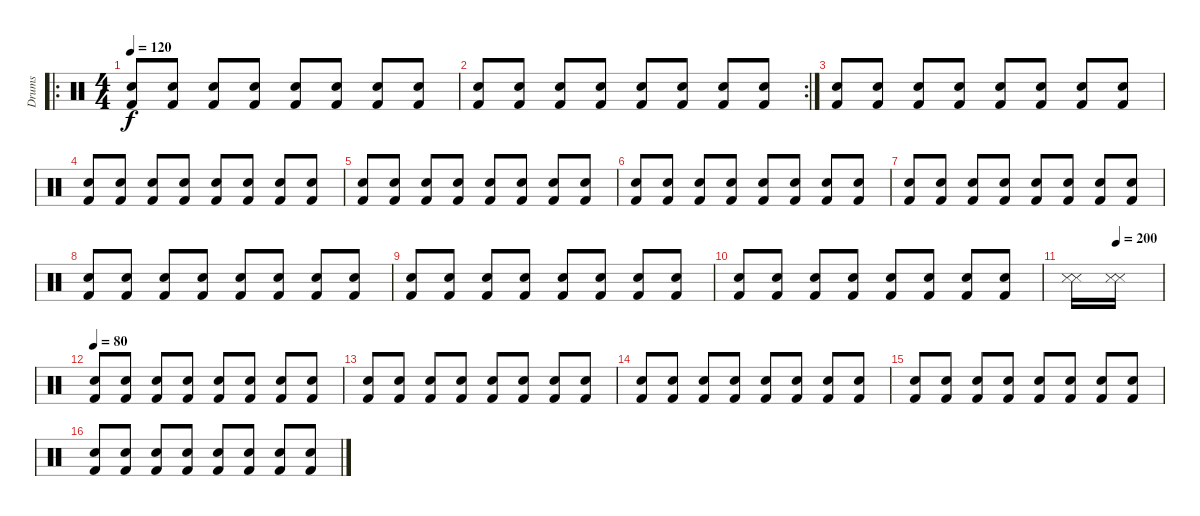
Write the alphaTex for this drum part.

\track ("Drums" "Drums") {instrument percussion}
\staff {score}
\articulation defaults
\ro
\ts (4 4)
\tempo 120
\tempo 80
\tempo 120
\clef neutral
\ks c
("Kick (hit) 2" "Snare (hit) 2").8{dy f} ("Kick (hit) 2" "Snare (hit) 2").8 ("Kick (hit) 2" "Snare (hit) 2").8 ("Kick (hit) 2" "Snare (hit) 2").8 ("Kick (hit) 2" "Snare (hit) 2").8 ("Kick (hit) 2" "Snare (hit) 2").8 ("Kick (hit) 2" "Snare (hit) 2").8 ("Kick (hit) 2" "Snare (hit) 2").8 |
\rc 2
("Kick (hit) 2" "Snare (hit) 2").8 ("Kick (hit) 2" "Snare (hit) 2").8 ("Kick (hit) 2" "Snare (hit) 2").8 ("Kick (hit) 2" "Snare (hit) 2").8 ("Kick (hit) 2" "Snare (hit) 2").8 ("Kick (hit) 2" "Snare (hit) 2").8 ("Kick (hit) 2" "Snare (hit) 2").8 ("Kick (hit) 2" "Snare (hit) 2").8 |
("Kick (hit) 2" "Snare (hit) 2").8 ("Kick (hit) 2" "Snare (hit) 2").8 ("Kick (hit) 2" "Snare (hit) 2").8 ("Kick (hit) 2" "Snare (hit) 2").8 ("Kick (hit) 2" "Snare (hit) 2").8 ("Kick (hit) 2" "Snare (hit) 2").8 ("Kick (hit) 2" "Snare (hit) 2").8 ("Kick (hit) 2" "Snare (hit) 2").8 |
("Kick (hit) 2" "Snare (hit) 2").8 ("Kick (hit) 2" "Snare (hit) 2").8 ("Kick (hit) 2" "Snare (hit) 2").8 ("Kick (hit) 2" "Snare (hit) 2").8 ("Kick (hit) 2" "Snare (hit) 2").8 ("Kick (hit) 2" "Snare (hit) 2").8 ("Kick (hit) 2" "Snare (hit) 2").8 ("Kick (hit) 2" "Snare (hit) 2").8 |
("Kick (hit) 2" "Snare (hit) 2").8 ("Kick (hit) 2" "Snare (hit) 2").8 ("Kick (hit) 2" "Snare (hit) 2").8 ("Kick (hit) 2" "Snare (hit) 2").8 ("Kick (hit) 2" "Snare (hit) 2").8 ("Kick (hit) 2" "Snare (hit) 2").8 ("Kick (hit) 2" "Snare (hit) 2").8 ("Kick (hit) 2" "Snare (hit) 2").8 |
("Kick (hit) 2" "Snare (hit) 2").8 ("Kick (hit) 2" "Snare (hit) 2").8 ("Kick (hit) 2" "Snare (hit) 2").8 ("Kick (hit) 2" "Snare (hit) 2").8 ("Kick (hit) 2" "Snare (hit) 2").8 ("Kick (hit) 2" "Snare (hit) 2").8 ("Kick (hit) 2" "Snare (hit) 2").8 ("Kick (hit) 2" "Snare (hit) 2").8 |
("Kick (hit) 2" "Snare (hit) 2").8 ("Kick (hit) 2" "Snare (hit) 2").8 ("Kick (hit) 2" "Snare (hit) 2").8 ("Kick (hit) 2" "Snare (hit) 2").8 ("Kick (hit) 2" "Snare (hit) 2").8 ("Kick (hit) 2" "Snare (hit) 2").8 ("Kick (hit) 2" "Snare (hit) 2").8 ("Kick (hit) 2" "Snare (hit) 2").8 |
("Kick (hit) 2" "Snare (hit) 2").8 ("Kick (hit) 2" "Snare (hit) 2").8 ("Kick (hit) 2" "Snare (hit) 2").8 ("Kick (hit) 2" "Snare (hit) 2").8 ("Kick (hit) 2" "Snare (hit) 2").8 ("Kick (hit) 2" "Snare (hit) 2").8 ("Kick (hit) 2" "Snare (hit) 2").8 ("Kick (hit) 2" "Snare (hit) 2").8 |
("Kick (hit) 2" "Snare (hit) 2").8 ("Kick (hit) 2" "Snare (hit) 2").8 ("Kick (hit) 2" "Snare (hit) 2").8 ("Kick (hit) 2" "Snare (hit) 2").8 ("Kick (hit) 2" "Snare (hit) 2").8 ("Kick (hit) 2" "Snare (hit) 2").8 ("Kick (hit) 2" "Snare (hit) 2").8 ("Kick (hit) 2" "Snare (hit) 2").8 |
("Kick (hit) 2" "Snare (hit) 2").8 ("Kick (hit) 2" "Snare (hit) 2").8 ("Kick (hit) 2" "Snare (hit) 2").8 ("Kick (hit) 2" "Snare (hit) 2").8 ("Kick (hit) 2" "Snare (hit) 2").8 ("Kick (hit) 2" "Snare (hit) 2").8 ("Kick (hit) 2" "Snare (hit) 2").8 ("Kick (hit) 2" "Snare (hit) 2").8 |
\tempo (200 0.5)
("Snare (side stick) 3" "Snare (side stick) 3").16 ("Snare (side stick) 3" "Snare (side stick) 3").16 |
\tempo 80
("Kick (hit) 2" "Snare (hit) 2").8 ("Kick (hit) 2" "Snare (hit) 2").8 ("Kick (hit) 2" "Snare (hit) 2").8 ("Kick (hit) 2" "Snare (hit) 2").8 ("Kick (hit) 2" "Snare (hit) 2").8 ("Kick (hit) 2" "Snare (hit) 2").8 ("Kick (hit) 2" "Snare (hit) 2").8 ("Kick (hit) 2" "Snare (hit) 2").8 |
("Kick (hit) 2" "Snare (hit) 2").8 ("Kick (hit) 2" "Snare (hit) 2").8 ("Kick (hit) 2" "Snare (hit) 2").8 ("Kick (hit) 2" "Snare (hit) 2").8 ("Kick (hit) 2" "Snare (hit) 2").8 ("Kick (hit) 2" "Snare (hit) 2").8 ("Kick (hit) 2" "Snare (hit) 2").8 ("Kick (hit) 2" "Snare (hit) 2").8 |
("Kick (hit) 2" "Snare (hit) 2").8 ("Kick (hit) 2" "Snare (hit) 2").8 ("Kick (hit) 2" "Snare (hit) 2").8 ("Kick (hit) 2" "Snare (hit) 2").8 ("Kick (hit) 2" "Snare (hit) 2").8 ("Kick (hit) 2" "Snare (hit) 2").8 ("Kick (hit) 2" "Snare (hit) 2").8 ("Kick (hit) 2" "Snare (hit) 2").8 |
("Kick (hit) 2" "Snare (hit) 2").8 ("Kick (hit) 2" "Snare (hit) 2").8 ("Kick (hit) 2" "Snare (hit) 2").8 ("Kick (hit) 2" "Snare (hit) 2").8 ("Kick (hit) 2" "Snare (hit) 2").8 ("Kick (hit) 2" "Snare (hit) 2").8 ("Kick (hit) 2" "Snare (hit) 2").8 ("Kick (hit) 2" "Snare (hit) 2").8 |
("Kick (hit) 2" "Snare (hit) 2").8 ("Kick (hit) 2" "Snare (hit) 2").8 ("Kick (hit) 2" "Snare (hit) 2").8 ("Kick (hit) 2" "Snare (hit) 2").8 ("Kick (hit) 2" "Snare (hit) 2").8 ("Kick (hit) 2" "Snare (hit) 2").8 ("Kick (hit) 2" "Snare (hit) 2").8 ("Kick (hit) 2" "Snare (hit) 2").8
